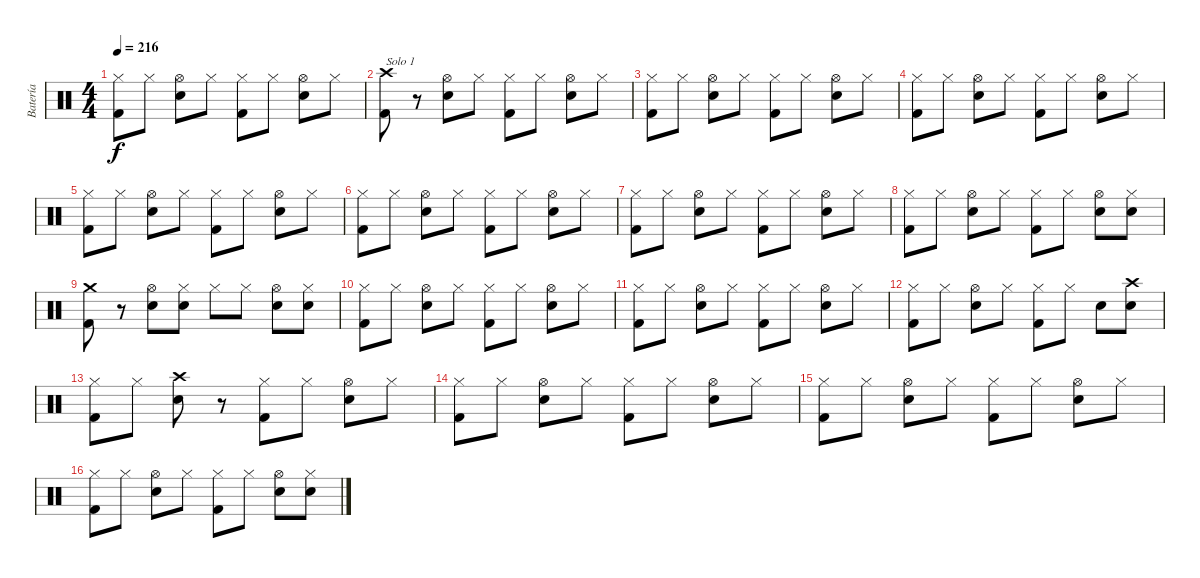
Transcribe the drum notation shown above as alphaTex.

\track ("Batería" "Batería") {instrument percussion}
\staff {score}
\articulation defaults
\ts (4 4)
\tempo 216
\clef neutral
\ks c
("Kick (hit) 2" "Hi-Hat (closed)").8{dy f} "Hi-Hat (closed)".8 ("Electric Snare (hit)" "Hi-Hat (open)").8 "Hi-Hat (closed)".8 ("Kick (hit) 2" "Hi-Hat (closed)").8 "Hi-Hat (closed)".8 ("Electric Snare (hit)" "Hi-Hat (open)").8 "Hi-Hat (closed)".8 |
("Kick (hit) 2" "Crash high (hit)").8{txt "Solo 1"} r.8 ("Electric Snare (hit)" "Hi-Hat (open)").8 "Hi-Hat (closed)".8 ("Kick (hit) 2" "Hi-Hat (closed)").8 "Hi-Hat (closed)".8 ("Electric Snare (hit)" "Hi-Hat (open)").8 "Hi-Hat (closed)".8 |
("Kick (hit) 2" "Hi-Hat (closed)").8 "Hi-Hat (closed)".8 ("Electric Snare (hit)" "Hi-Hat (open)").8 "Hi-Hat (closed)".8 ("Kick (hit) 2" "Hi-Hat (closed)").8 "Hi-Hat (closed)".8 ("Electric Snare (hit)" "Hi-Hat (open)").8 "Hi-Hat (closed)".8 |
("Kick (hit) 2" "Hi-Hat (closed)").8 "Hi-Hat (closed)".8 ("Electric Snare (hit)" "Hi-Hat (open)").8 "Hi-Hat (closed)".8 ("Kick (hit) 2" "Hi-Hat (closed)").8 "Hi-Hat (closed)".8 ("Electric Snare (hit)" "Hi-Hat (open)").8 "Hi-Hat (closed)".8 |
("Kick (hit) 2" "Hi-Hat (closed)").8 "Hi-Hat (closed)".8 ("Electric Snare (hit)" "Hi-Hat (open)").8 "Hi-Hat (closed)".8 ("Kick (hit) 2" "Hi-Hat (closed)").8 "Hi-Hat (closed)".8 ("Electric Snare (hit)" "Hi-Hat (open)").8 "Hi-Hat (closed)".8 |
("Kick (hit) 2" "Hi-Hat (closed)").8 "Hi-Hat (closed)".8 ("Electric Snare (hit)" "Hi-Hat (open)").8 "Hi-Hat (closed)".8 ("Kick (hit) 2" "Hi-Hat (closed)").8 "Hi-Hat (closed)".8 ("Electric Snare (hit)" "Hi-Hat (open)").8 "Hi-Hat (closed)".8 |
("Kick (hit) 2" "Hi-Hat (closed)").8 "Hi-Hat (closed)".8 ("Electric Snare (hit)" "Hi-Hat (open)").8 "Hi-Hat (closed)".8 ("Kick (hit) 2" "Hi-Hat (closed)").8 "Hi-Hat (closed)".8 ("Electric Snare (hit)" "Hi-Hat (open)").8 "Hi-Hat (closed)".8 |
("Kick (hit) 2" "Hi-Hat (closed)").8 "Hi-Hat (closed)".8 ("Electric Snare (hit)" "Hi-Hat (open)").8 "Hi-Hat (closed)".8 ("Kick (hit) 2" "Hi-Hat (closed)").8 "Hi-Hat (closed)".8 ("Electric Snare (hit)" "Hi-Hat (open)").8 ("Electric Snare (hit)" "Hi-Hat (closed)").8 |
("Kick (hit) 2" "Crash medium (hit)").8 r.8 ("Electric Snare (hit)" "Hi-Hat (open)").8 ("Electric Snare (hit)" "Hi-Hat (closed)").8 "Hi-Hat (closed)".8 "Hi-Hat (closed)".8 ("Electric Snare (hit)" "Hi-Hat (open)").8 ("Electric Snare (hit)" "Hi-Hat (closed)").8 |
("Kick (hit) 2" "Hi-Hat (closed)").8 "Hi-Hat (closed)".8 ("Electric Snare (hit)" "Hi-Hat (open)").8 "Hi-Hat (closed)".8 ("Kick (hit) 2" "Hi-Hat (closed)").8 "Hi-Hat (closed)".8 ("Electric Snare (hit)" "Hi-Hat (open)").8 "Hi-Hat (closed)".8 |
("Kick (hit) 2" "Hi-Hat (closed)").8 "Hi-Hat (closed)".8 ("Electric Snare (hit)" "Hi-Hat (open)").8 "Hi-Hat (closed)".8 ("Kick (hit) 2" "Hi-Hat (closed)").8 "Hi-Hat (closed)".8 ("Electric Snare (hit)" "Hi-Hat (open)").8 "Hi-Hat (closed)".8 |
("Kick (hit) 2" "Hi-Hat (closed)").8 "Hi-Hat (closed)".8 ("Electric Snare (hit)" "Hi-Hat (open)").8 "Hi-Hat (closed)".8 ("Kick (hit) 2" "Hi-Hat (closed)").8 "Hi-Hat (closed)".8 "Electric Snare (hit)".8 ("Electric Snare (hit)" "Crash high (hit)").8 |
("Kick (hit) 2" "Hi-Hat (closed)").8 "Hi-Hat (closed)".8 ("Electric Snare (hit)" "Crash high (hit)").8 r.8 ("Kick (hit) 2" "Hi-Hat (closed)").8 "Hi-Hat (closed)".8 ("Electric Snare (hit)" "Hi-Hat (open)").8 "Hi-Hat (closed)".8 |
("Kick (hit) 2" "Hi-Hat (closed)").8 "Hi-Hat (closed)".8 ("Electric Snare (hit)" "Hi-Hat (open)").8 "Hi-Hat (closed)".8 ("Kick (hit) 2" "Hi-Hat (closed)").8 "Hi-Hat (closed)".8 ("Electric Snare (hit)" "Hi-Hat (open)").8 "Hi-Hat (closed)".8 |
("Kick (hit) 2" "Hi-Hat (closed)").8 "Hi-Hat (closed)".8 ("Electric Snare (hit)" "Hi-Hat (open)").8 "Hi-Hat (closed)".8 ("Kick (hit) 2" "Hi-Hat (closed)").8 "Hi-Hat (closed)".8 ("Electric Snare (hit)" "Hi-Hat (open)").8 "Hi-Hat (closed)".8 |
("Kick (hit) 2" "Hi-Hat (closed)").8 "Hi-Hat (closed)".8 ("Electric Snare (hit)" "Hi-Hat (open)").8 "Hi-Hat (closed)".8 ("Kick (hit) 2" "Hi-Hat (closed)").8 "Hi-Hat (closed)".8 ("Electric Snare (hit)" "Hi-Hat (open)").8 ("Electric Snare (hit)" "Hi-Hat (closed)").8
